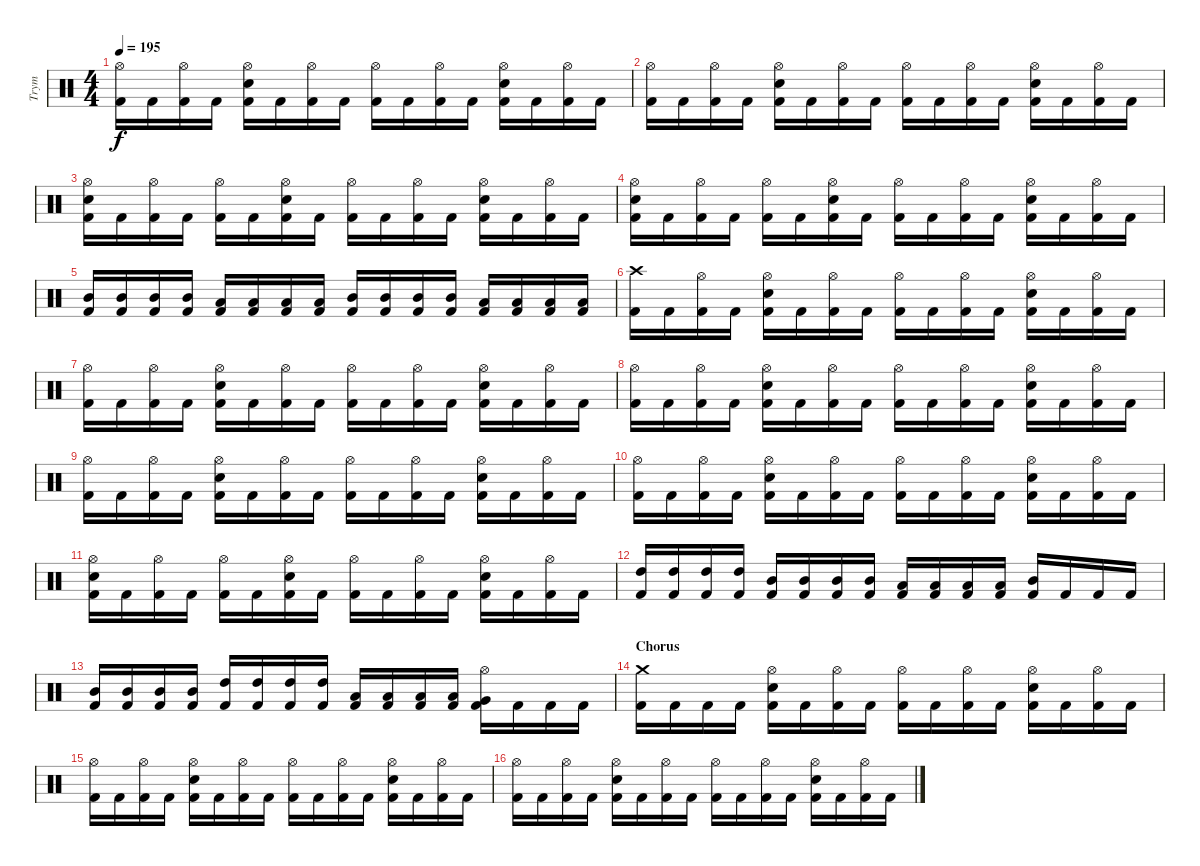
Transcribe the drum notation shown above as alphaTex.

\track ("Trym" "Trym") {instrument percussion}
\staff {score}
\articulation defaults
\ts (4 4)
\tempo 195
\clef neutral
\ks c
("Hi-Hat (open)" "Kick (hit) 2").16{dy f} "Kick (hit) 2".16 ("Hi-Hat (open)" "Kick (hit) 2").16 "Kick (hit) 2".16 ("Hi-Hat (open)" "Electric Snare (hit)" "Kick (hit) 2").16 "Kick (hit) 2".16 ("Hi-Hat (open)" "Kick (hit) 2").16 "Kick (hit) 2".16 ("Hi-Hat (open)" "Kick (hit) 2").16 "Kick (hit) 2".16 ("Hi-Hat (open)" "Kick (hit) 2").16 "Kick (hit) 2".16 ("Hi-Hat (open)" "Electric Snare (hit)" "Kick (hit) 2").16 "Kick (hit) 2".16 ("Hi-Hat (open)" "Kick (hit) 2").16 "Kick (hit) 2".16 |
("Hi-Hat (open)" "Kick (hit) 2").16 "Kick (hit) 2".16 ("Hi-Hat (open)" "Kick (hit) 2").16 "Kick (hit) 2".16 ("Hi-Hat (open)" "Electric Snare (hit)" "Kick (hit) 2").16 "Kick (hit) 2".16 ("Hi-Hat (open)" "Kick (hit) 2").16 "Kick (hit) 2".16 ("Hi-Hat (open)" "Kick (hit) 2").16 "Kick (hit) 2".16 ("Hi-Hat (open)" "Kick (hit) 2").16 "Kick (hit) 2".16 ("Hi-Hat (open)" "Electric Snare (hit)" "Kick (hit) 2").16 "Kick (hit) 2".16 ("Hi-Hat (open)" "Kick (hit) 2").16 "Kick (hit) 2".16 |
("Hi-Hat (open)" "Electric Snare (hit)" "Kick (hit) 2").16 "Kick (hit) 2".16 ("Hi-Hat (open)" "Kick (hit) 2").16 "Kick (hit) 2".16 ("Hi-Hat (open)" "Kick (hit) 2").16 "Kick (hit) 2".16 ("Hi-Hat (open)" "Electric Snare (hit)" "Kick (hit) 2").16 "Kick (hit) 2".16 ("Hi-Hat (open)" "Kick (hit) 2").16 "Kick (hit) 2".16 ("Hi-Hat (open)" "Kick (hit) 2").16 "Kick (hit) 2".16 ("Hi-Hat (open)" "Electric Snare (hit)" "Kick (hit) 2").16 "Kick (hit) 2".16 ("Hi-Hat (open)" "Kick (hit) 2").16 "Kick (hit) 2".16 |
("Hi-Hat (open)" "Electric Snare (hit)" "Kick (hit) 2").16 "Kick (hit) 2".16 ("Hi-Hat (open)" "Kick (hit) 2").16 "Kick (hit) 2".16 ("Hi-Hat (open)" "Kick (hit) 2").16 "Kick (hit) 2".16 ("Hi-Hat (open)" "Electric Snare (hit)" "Kick (hit) 2").16 "Kick (hit) 2".16 ("Hi-Hat (open)" "Kick (hit) 2").16 "Kick (hit) 2".16 ("Hi-Hat (open)" "Kick (hit) 2").16 "Kick (hit) 2".16 ("Hi-Hat (open)" "Electric Snare (hit)" "Kick (hit) 2").16 "Kick (hit) 2".16 ("Hi-Hat (open)" "Kick (hit) 2").16 "Kick (hit) 2".16 |
("Mid Tom (hit)" "Kick (hit) 2").16 ("Mid Tom (hit)" "Kick (hit) 2").16 ("Mid Tom (hit)" "Kick (hit) 2").16 ("Mid Tom (hit)" "Kick (hit) 2").16 ("Low Tom (hit)" "Kick (hit) 2").16 ("Low Tom (hit)" "Kick (hit) 2").16 ("Low Tom (hit)" "Kick (hit) 2").16 ("Low Tom (hit)" "Kick (hit) 2").16 ("Mid Tom (hit)" "Kick (hit) 2").16 ("Mid Tom (hit)" "Kick (hit) 2").16 ("Mid Tom (hit)" "Kick (hit) 2").16 ("Mid Tom (hit)" "Kick (hit) 2").16 ("Low Tom (hit)" "Kick (hit) 2").16 ("Low Tom (hit)" "Kick (hit) 2").16 ("Low Tom (hit)" "Kick (hit) 2").16 ("Low Tom (hit)" "Kick (hit) 2").16 |
("Crash high (hit)" "Kick (hit) 2").16 "Kick (hit) 2".16 ("Hi-Hat (open)" "Kick (hit) 2").16 "Kick (hit) 2".16 ("Hi-Hat (open)" "Electric Snare (hit)" "Kick (hit) 2").16 "Kick (hit) 2".16 ("Hi-Hat (open)" "Kick (hit) 2").16 "Kick (hit) 2".16 ("Hi-Hat (open)" "Kick (hit) 2").16 "Kick (hit) 2".16 ("Hi-Hat (open)" "Kick (hit) 2").16 "Kick (hit) 2".16 ("Hi-Hat (open)" "Electric Snare (hit)" "Kick (hit) 2").16 "Kick (hit) 2".16 ("Hi-Hat (open)" "Kick (hit) 2").16 "Kick (hit) 2".16 |
("Hi-Hat (open)" "Kick (hit) 2").16 "Kick (hit) 2".16 ("Hi-Hat (open)" "Kick (hit) 2").16 "Kick (hit) 2".16 ("Hi-Hat (open)" "Electric Snare (hit)" "Kick (hit) 2").16 "Kick (hit) 2".16 ("Hi-Hat (open)" "Kick (hit) 2").16 "Kick (hit) 2".16 ("Hi-Hat (open)" "Kick (hit) 2").16 "Kick (hit) 2".16 ("Hi-Hat (open)" "Kick (hit) 2").16 "Kick (hit) 2".16 ("Hi-Hat (open)" "Electric Snare (hit)" "Kick (hit) 2").16 "Kick (hit) 2".16 ("Hi-Hat (open)" "Kick (hit) 2").16 "Kick (hit) 2".16 |
("Hi-Hat (open)" "Kick (hit) 2").16 "Kick (hit) 2".16 ("Hi-Hat (open)" "Kick (hit) 2").16 "Kick (hit) 2".16 ("Hi-Hat (open)" "Electric Snare (hit)" "Kick (hit) 2").16 "Kick (hit) 2".16 ("Hi-Hat (open)" "Kick (hit) 2").16 "Kick (hit) 2".16 ("Hi-Hat (open)" "Kick (hit) 2").16 "Kick (hit) 2".16 ("Hi-Hat (open)" "Kick (hit) 2").16 "Kick (hit) 2".16 ("Hi-Hat (open)" "Electric Snare (hit)" "Kick (hit) 2").16 "Kick (hit) 2".16 ("Hi-Hat (open)" "Kick (hit) 2").16 "Kick (hit) 2".16 |
("Hi-Hat (open)" "Kick (hit) 2").16 "Kick (hit) 2".16 ("Hi-Hat (open)" "Kick (hit) 2").16 "Kick (hit) 2".16 ("Hi-Hat (open)" "Electric Snare (hit)" "Kick (hit) 2").16 "Kick (hit) 2".16 ("Hi-Hat (open)" "Kick (hit) 2").16 "Kick (hit) 2".16 ("Hi-Hat (open)" "Kick (hit) 2").16 "Kick (hit) 2".16 ("Hi-Hat (open)" "Kick (hit) 2").16 "Kick (hit) 2".16 ("Hi-Hat (open)" "Electric Snare (hit)" "Kick (hit) 2").16 "Kick (hit) 2".16 ("Hi-Hat (open)" "Kick (hit) 2").16 "Kick (hit) 2".16 |
("Hi-Hat (open)" "Kick (hit) 2").16 "Kick (hit) 2".16 ("Hi-Hat (open)" "Kick (hit) 2").16 "Kick (hit) 2".16 ("Hi-Hat (open)" "Electric Snare (hit)" "Kick (hit) 2").16 "Kick (hit) 2".16 ("Hi-Hat (open)" "Kick (hit) 2").16 "Kick (hit) 2".16 ("Hi-Hat (open)" "Kick (hit) 2").16 "Kick (hit) 2".16 ("Hi-Hat (open)" "Kick (hit) 2").16 "Kick (hit) 2".16 ("Hi-Hat (open)" "Electric Snare (hit)" "Kick (hit) 2").16 "Kick (hit) 2".16 ("Hi-Hat (open)" "Kick (hit) 2").16 "Kick (hit) 2".16 |
("Hi-Hat (open)" "Electric Snare (hit)" "Kick (hit) 2").16 "Kick (hit) 2".16 ("Hi-Hat (open)" "Kick (hit) 2").16 "Kick (hit) 2".16 ("Hi-Hat (open)" "Kick (hit) 2").16 "Kick (hit) 2".16 ("Hi-Hat (open)" "Electric Snare (hit)" "Kick (hit) 2").16 "Kick (hit) 2".16 ("Hi-Hat (open)" "Kick (hit) 2").16 "Kick (hit) 2".16 ("Hi-Hat (open)" "Kick (hit) 2").16 "Kick (hit) 2".16 ("Hi-Hat (open)" "Electric Snare (hit)" "Kick (hit) 2").16 "Kick (hit) 2".16 ("Hi-Hat (open)" "Kick (hit) 2").16 "Kick (hit) 2".16 |
("High Tom (hit)" "Kick (hit) 2").16 ("High Tom (hit)" "Kick (hit) 2").16 ("High Tom (hit)" "Kick (hit) 2").16 ("High Tom (hit)" "Kick (hit) 2").16 ("Mid Tom (hit)" "Kick (hit) 2").16 ("Mid Tom (hit)" "Kick (hit) 2").16 ("Mid Tom (hit)" "Kick (hit) 2").16 ("Mid Tom (hit)" "Kick (hit) 2").16 ("Low Tom (hit)" "Kick (hit) 2").16 ("Low Tom (hit)" "Kick (hit) 2").16 ("Low Tom (hit)" "Kick (hit) 2").16 ("Low Tom (hit)" "Kick (hit) 2").16 ("Mid Tom (hit)" "Kick (hit) 2").16 "Kick (hit) 2".16 "Kick (hit) 2".16 "Kick (hit) 2".16 |
("Mid Tom (hit)" "Kick (hit) 2").16 ("Mid Tom (hit)" "Kick (hit) 2").16 ("Mid Tom (hit)" "Kick (hit) 2").16 ("Mid Tom (hit)" "Kick (hit) 2").16 ("High Tom (hit)" "Kick (hit) 2").16 ("High Tom (hit)" "Kick (hit) 2").16 ("High Tom (hit)" "Kick (hit) 2").16 ("High Tom (hit)" "Kick (hit) 2").16 ("Low Tom (hit)" "Kick (hit) 2").16 ("Low Tom (hit)" "Kick (hit) 2").16 ("Low Tom (hit)" "Kick (hit) 2").16 ("Low Tom (hit)" "Kick (hit) 2").16 ("Hi-Hat (open)" "Very Low Tom (hit)" "Kick (hit) 2").16 "Kick (hit) 2".16 "Kick (hit) 2".16 "Kick (hit) 2".16 |
\section ("" "Chorus")
("Crash medium (hit)" "Kick (hit) 2").16 "Kick (hit) 2".16 "Kick (hit) 2".16 "Kick (hit) 2".16 ("Hi-Hat (open)" "Electric Snare (hit)" "Kick (hit) 2").16 "Kick (hit) 2".16 ("Hi-Hat (open)" "Kick (hit) 2").16 "Kick (hit) 2".16 ("Hi-Hat (open)" "Kick (hit) 2").16 "Kick (hit) 2".16 ("Hi-Hat (open)" "Kick (hit) 2").16 "Kick (hit) 2".16 ("Hi-Hat (open)" "Electric Snare (hit)" "Kick (hit) 2").16 "Kick (hit) 2".16 ("Hi-Hat (open)" "Kick (hit) 2").16 "Kick (hit) 2".16 |
("Hi-Hat (open)" "Kick (hit) 2").16 "Kick (hit) 2".16 ("Hi-Hat (open)" "Kick (hit) 2").16 "Kick (hit) 2".16 ("Hi-Hat (open)" "Electric Snare (hit)" "Kick (hit) 2").16 "Kick (hit) 2".16 ("Hi-Hat (open)" "Kick (hit) 2").16 "Kick (hit) 2".16 ("Hi-Hat (open)" "Kick (hit) 2").16 "Kick (hit) 2".16 ("Hi-Hat (open)" "Kick (hit) 2").16 "Kick (hit) 2".16 ("Hi-Hat (open)" "Electric Snare (hit)" "Kick (hit) 2").16 "Kick (hit) 2".16 ("Hi-Hat (open)" "Kick (hit) 2").16 "Kick (hit) 2".16 |
("Hi-Hat (open)" "Kick (hit) 2").16 "Kick (hit) 2".16 ("Hi-Hat (open)" "Kick (hit) 2").16 "Kick (hit) 2".16 ("Hi-Hat (open)" "Electric Snare (hit)" "Kick (hit) 2").16 "Kick (hit) 2".16 ("Hi-Hat (open)" "Kick (hit) 2").16 "Kick (hit) 2".16 ("Hi-Hat (open)" "Kick (hit) 2").16 "Kick (hit) 2".16 ("Hi-Hat (open)" "Kick (hit) 2").16 "Kick (hit) 2".16 ("Hi-Hat (open)" "Electric Snare (hit)" "Kick (hit) 2").16 "Kick (hit) 2".16 ("Hi-Hat (open)" "Kick (hit) 2").16 "Kick (hit) 2".16
